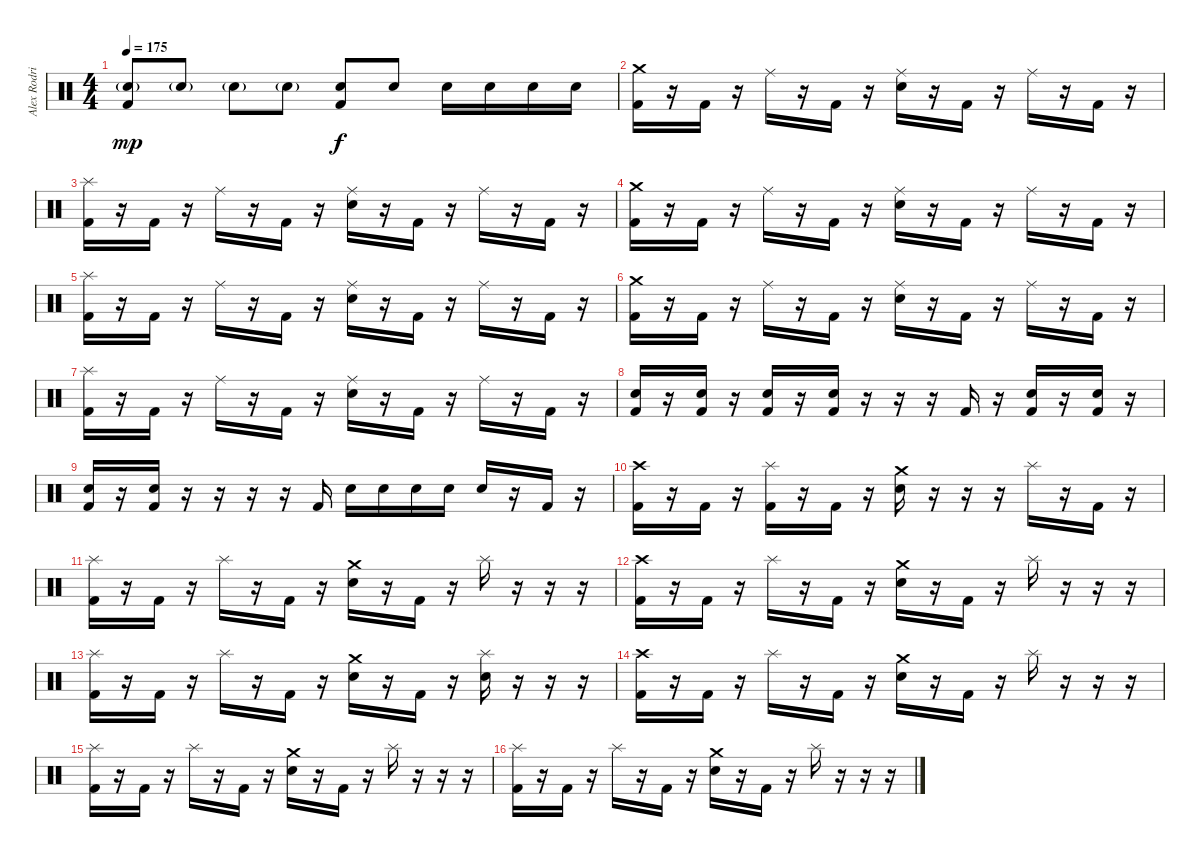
\track ("Alex Rodriguez" "Alex Rodri") {instrument percussion}
\staff {score}
\articulation defaults
\ts (4 4)
\tempo 175
\clef neutral
\ks c
("Electric Snare (hit)"{g} "Kick (hit) 2").8{dy mp} "Electric Snare (hit)"{g}.8 "Electric Snare (hit)"{g}.8 "Electric Snare (hit)"{g}.8 ("Electric Snare (hit)" "Kick (hit) 2").8{dy f} "Electric Snare (hit)".8 "Electric Snare (hit)".16 "Electric Snare (hit)".16 "Electric Snare (hit)".16 "Electric Snare (hit)".16 |
("Crash medium (hit)" "Kick (hit) 2").16 r.16 "Kick (hit) 2".16 r.16 "Ride (middle)".16 r.16 "Kick (hit) 2".16 r.16 ("Ride (middle)" "Electric Snare (hit)").16 r.16 "Kick (hit) 2".16 r.16 "Ride (middle)".16 r.16 "Kick (hit) 2".16 r.16 |
("Splash (hit)" "Kick (hit) 2").16 r.16 "Kick (hit) 2".16 r.16 "Ride (middle)".16 r.16 "Kick (hit) 2".16 r.16 ("Ride (middle)" "Electric Snare (hit)").16 r.16 "Kick (hit) 2".16 r.16 "Ride (middle)".16 r.16 "Kick (hit) 2".16 r.16 |
("Crash medium (hit)" "Kick (hit) 2").16 r.16 "Kick (hit) 2".16 r.16 "Ride (middle)".16 r.16 "Kick (hit) 2".16 r.16 ("Ride (middle)" "Electric Snare (hit)").16 r.16 "Kick (hit) 2".16 r.16 "Ride (middle)".16 r.16 "Kick (hit) 2".16 r.16 |
("Splash (hit)" "Kick (hit) 2").16 r.16 "Kick (hit) 2".16 r.16 "Ride (middle)".16 r.16 "Kick (hit) 2".16 r.16 ("Ride (middle)" "Electric Snare (hit)").16 r.16 "Kick (hit) 2".16 r.16 "Ride (middle)".16 r.16 "Kick (hit) 2".16 r.16 |
("Crash medium (hit)" "Kick (hit) 2").16 r.16 "Kick (hit) 2".16 r.16 "Ride (middle)".16 r.16 "Kick (hit) 2".16 r.16 ("Ride (middle)" "Electric Snare (hit)").16 r.16 "Kick (hit) 2".16 r.16 "Ride (middle)".16 r.16 "Kick (hit) 2".16 r.16 |
("Splash (hit)" "Kick (hit) 2").16 r.16 "Kick (hit) 2".16 r.16 "Ride (middle)".16 r.16 "Kick (hit) 2".16 r.16 ("Ride (middle)" "Electric Snare (hit)").16 r.16 "Kick (hit) 2".16 r.16 "Ride (middle)".16 r.16 "Kick (hit) 2".16 r.16 |
("Electric Snare (hit)" "Kick (hit) 2").16 r.16 ("Electric Snare (hit)" "Kick (hit) 2").16 r.16 ("Electric Snare (hit)" "Kick (hit) 2").16 r.16 ("Electric Snare (hit)" "Kick (hit) 2").16 r.16 r.16 r.16 "Kick (hit) 2".16 r.16 ("Electric Snare (hit)" "Kick (hit) 2").16 r.16 ("Electric Snare (hit)" "Kick (hit) 2").16 r.16 |
("Electric Snare (hit)" "Kick (hit) 2").16 r.16 ("Electric Snare (hit)" "Kick (hit) 2").16 r.16 r.16 r.16 r.16 "Kick (hit) 2".16 "Electric Snare (hit)".16 "Electric Snare (hit)".16 "Electric Snare (hit)".16 "Electric Snare (hit)".16 "Electric Snare (hit)".16 r.16 "Kick (hit) 2".16 r.16 |
("Crash high (hit)" "Kick (hit) 2").16 r.16 "Kick (hit) 2".16 r.16 ("Splash (hit)" "Kick (hit) 2").16 r.16 "Kick (hit) 2".16 r.16 ("Crash medium (hit)" "Electric Snare (hit)").16 r.16 r.16 r.16 "Splash (hit)".16 r.16 "Kick (hit) 2".16 r.16 |
("Splash (hit)" "Kick (hit) 2").16 r.16 "Kick (hit) 2".16 r.16 "Splash (hit)".16 r.16 "Kick (hit) 2".16 r.16 ("Crash medium (hit)" "Electric Snare (hit)").16 r.16 "Kick (hit) 2".16 r.16 "Splash (hit)".16 r.16 r.16 r.16 |
("Crash high (hit)" "Kick (hit) 2").16 r.16 "Kick (hit) 2".16 r.16 "Splash (hit)".16 r.16 "Kick (hit) 2".16 r.16 ("Crash medium (hit)" "Electric Snare (hit)").16 r.16 "Kick (hit) 2".16 r.16 "Splash (hit)".16 r.16 r.16 r.16 |
("Splash (hit)" "Kick (hit) 2").16 r.16 "Kick (hit) 2".16 r.16 "Splash (hit)".16 r.16 "Kick (hit) 2".16 r.16 ("Crash medium (hit)" "Electric Snare (hit)").16 r.16 "Kick (hit) 2".16 r.16 ("Splash (hit)" "Electric Snare (hit)").16 r.16 r.16 r.16 |
("Crash high (hit)" "Kick (hit) 2").16 r.16 "Kick (hit) 2".16 r.16 "Splash (hit)".16 r.16 "Kick (hit) 2".16 r.16 ("Crash medium (hit)" "Electric Snare (hit)").16 r.16 "Kick (hit) 2".16 r.16 "Splash (hit)".16 r.16 r.16 r.16 |
("Splash (hit)" "Kick (hit) 2").16 r.16 "Kick (hit) 2".16 r.16 "Splash (hit)".16 r.16 "Kick (hit) 2".16 r.16 ("Crash medium (hit)" "Electric Snare (hit)").16 r.16 "Kick (hit) 2".16 r.16 "Splash (hit)".16 r.16 r.16 r.16 |
("Splash (hit)" "Kick (hit) 2").16 r.16 "Kick (hit) 2".16 r.16 "Splash (hit)".16 r.16 "Kick (hit) 2".16 r.16 ("Crash medium (hit)" "Electric Snare (hit)").16 r.16 "Kick (hit) 2".16 r.16 "Splash (hit)".16 r.16 r.16 r.16
